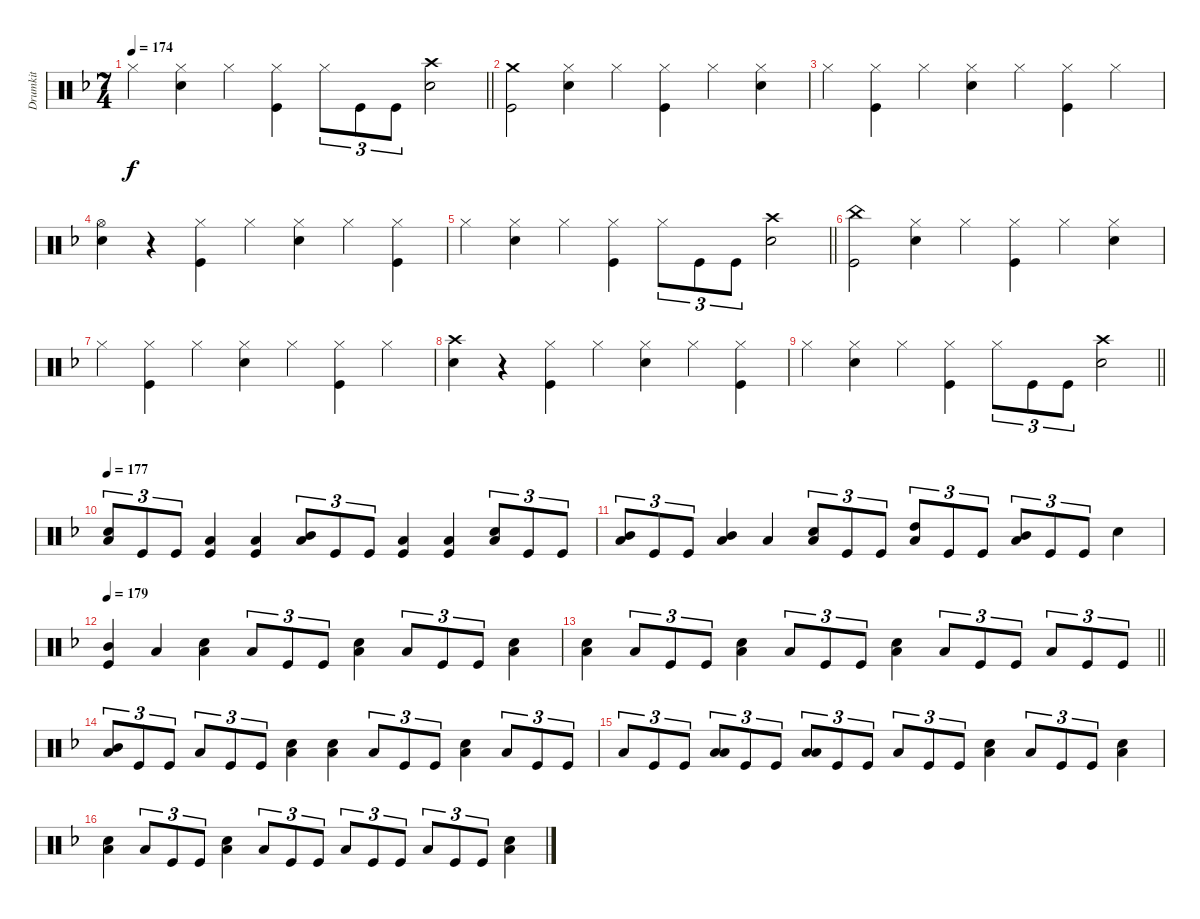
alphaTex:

\track ("Drumkit" "Drumkit") {instrument percussion}
\staff {score}
\articulation defaults
\ts (7 4)
\tempo 174
\clef neutral
\barLineRight lightlight
\ks dminor "Hi-Hat (closed)".4{dy f}
("Hi-Hat (closed)" "Snare (hit) 2").4 "Hi-Hat (closed)".4 ("Hi-Hat (closed)" "Kick (hit)").4 "Hi-Hat (closed)".8{tu (3 2)} "Kick (hit)".8{tu (3 2)} "Kick (hit)".8{tu (3 2)} ("Snare (hit) 2" "Crash high (hit)").2 |
("Kick (hit)" "Crash medium (hit)").2 ("Snare (hit) 2" "Hi-Hat (closed)").4 "Hi-Hat (closed)".4 ("Hi-Hat (closed)" "Kick (hit)").4 "Hi-Hat (closed)".4 ("Hi-Hat (closed)" "Snare (hit) 2").4 |
"Hi-Hat (closed)".4 ("Hi-Hat (closed)" "Kick (hit)").4 "Hi-Hat (closed)".4 ("Hi-Hat (closed)" "Snare (hit) 2").4 "Hi-Hat (closed)".4 ("Hi-Hat (closed)" "Kick (hit)").4 "Hi-Hat (closed)".4 |
("Hi-Hat (open)" "Snare (hit) 2").4 r.4 ("Hi-Hat (closed)" "Kick (hit)").4 "Hi-Hat (closed)".4 ("Hi-Hat (closed)" "Snare (hit) 2").4 "Hi-Hat (closed)".4 ("Hi-Hat (closed)" "Kick (hit)").4 |
\barLineRight lightlight "Hi-Hat (closed)".4
("Hi-Hat (closed)" "Snare (hit) 2").4 "Hi-Hat (closed)".4 ("Hi-Hat (closed)" "Kick (hit)").4 "Hi-Hat (closed)".8{tu (3 2)} "Kick (hit)".8{tu (3 2)} "Kick (hit)".8{tu (3 2)} ("Snare (hit) 2" "Crash high (hit)").2 |
("Kick (hit)" "China (hit)").2 ("Snare (hit) 2" "Hi-Hat (closed)").4 "Hi-Hat (closed)".4 ("Hi-Hat (closed)" "Kick (hit)").4 "Hi-Hat (closed)".4 ("Hi-Hat (closed)" "Snare (hit) 2").4 |
"Hi-Hat (closed)".4 ("Hi-Hat (closed)" "Kick (hit)").4 "Hi-Hat (closed)".4 ("Hi-Hat (closed)" "Snare (hit) 2").4 "Hi-Hat (closed)".4 ("Hi-Hat (closed)" "Kick (hit)").4 "Hi-Hat (closed)".4 |
("Snare (hit) 2" "Crash high (hit)").4 r.4 ("Hi-Hat (closed)" "Kick (hit)").4 "Hi-Hat (closed)".4 ("Hi-Hat (closed)" "Snare (hit) 2").4 "Hi-Hat (closed)".4 ("Hi-Hat (closed)" "Kick (hit)").4 |
\barLineRight lightlight "Hi-Hat (closed)".4
("Hi-Hat (closed)" "Snare (hit) 2").4 "Hi-Hat (closed)".4 ("Hi-Hat (closed)" "Kick (hit)").4 "Hi-Hat (closed)".8{tu (3 2)} "Kick (hit)".8{tu (3 2)} "Kick (hit)".8{tu (3 2)} ("Snare (hit) 2" "Crash high (hit)").2 |
\tempo 177
("Snare (hit) 2" "Low Floor Tom (hit)").8{tu (3 2)} "Kick (hit)".8{tu (3 2)} "Kick (hit)".8{tu (3 2)} ("Kick (hit)" "Low Floor Tom (hit)").4 ("Kick (hit)" "Low Floor Tom (hit)").4 ("Mid Tom (hit)" "Low Floor Tom (hit)").8{tu (3 2)} "Kick (hit)".8{tu (3 2)} "Kick (hit)".8{tu (3 2)} ("Kick (hit)" "Low Floor Tom (hit)").4 ("Kick (hit)" "Low Floor Tom (hit)").4 ("Low Floor Tom (hit)" "Snare (hit) 2").8{tu (3 2)} "Kick (hit)".8{tu (3 2)} "Kick (hit)".8{tu (3 2)} |
("Mid Tom (hit)" "Low Floor Tom (hit)").8{tu (3 2)} "Kick (hit)".8{tu (3 2)} "Kick (hit)".8{tu (3 2)} ("Mid Tom (hit)" "Low Floor Tom (hit)").4 "Low Floor Tom (hit)".4 ("Low Floor Tom (hit)" "Snare (hit) 2").8{tu (3 2)} "Kick (hit)".8{tu (3 2)} "Kick (hit)".8{tu (3 2)} ("Low Floor Tom (hit)" "High Tom (hit)").8{tu (3 2)} "Kick (hit)".8{tu (3 2)} "Kick (hit)".8{tu (3 2)} ("Low Floor Tom (hit)" "Mid Tom (hit)").8{tu (3 2)} "Kick (hit)".8{tu (3 2)} "Kick (hit)".8{tu (3 2)} "Snare (hit) 2".4 |
\tempo 179
("Kick (hit)" "Mid Tom (hit)").4 "Low Floor Tom (hit)".4 ("Snare (hit) 2" "Low Floor Tom (hit)").4 "Low Floor Tom (hit)".8{tu (3 2)} "Kick (hit)".8{tu (3 2)} "Kick (hit)".8{tu (3 2)} ("Snare (hit) 2" "Low Floor Tom (hit)").4 "Low Floor Tom (hit)".8{tu (3 2)} "Kick (hit)".8{tu (3 2)} "Kick (hit)".8{tu (3 2)} ("Snare (hit) 2" "Low Floor Tom (hit)").4 |
\barLineRight lightlight
("Snare (hit) 2" "Low Floor Tom (hit)").4 "Low Floor Tom (hit)".8{tu (3 2)} "Kick (hit)".8{tu (3 2)} "Kick (hit)".8{tu (3 2)} ("Snare (hit) 2" "Low Floor Tom (hit)").4 "Low Floor Tom (hit)".8{tu (3 2)} "Kick (hit)".8{tu (3 2)} "Kick (hit)".8{tu (3 2)} ("Snare (hit) 2" "Low Floor Tom (hit)").4 "Low Floor Tom (hit)".8{tu (3 2)} "Kick (hit)".8{tu (3 2)} "Kick (hit)".8{tu (3 2)} "Low Floor Tom (hit)".8{tu (3 2)} "Kick (hit)".8{tu (3 2)} "Kick (hit)".8{tu (3 2)} |
("Low Floor Tom (hit)" "Mid Tom (hit)").8{tu (3 2)} "Kick (hit)".8{tu (3 2)} "Kick (hit)".8{tu (3 2)} "Low Floor Tom (hit)".8{tu (3 2)} "Kick (hit)".8{tu (3 2)} "Kick (hit)".8{tu (3 2)} ("Snare (hit) 2" "Low Floor Tom (hit)").4 ("Snare (hit) 2" "Low Floor Tom (hit)").4 "Low Floor Tom (hit)".8{tu (3 2)} "Kick (hit)".8{tu (3 2)} "Kick (hit)".8{tu (3 2)} ("Snare (hit) 2" "Low Floor Tom (hit)").4 "Low Floor Tom (hit)".8{tu (3 2)} "Kick (hit)".8{tu (3 2)} "Kick (hit)".8{tu (3 2)} |
"Low Floor Tom (hit)".8{tu (3 2)} "Kick (hit)".8{tu (3 2)} "Kick (hit)".8{tu (3 2)} ("Low Floor Tom (hit)" "Low Tom (hit)").8{tu (3 2)} "Kick (hit)".8{tu (3 2)} "Kick (hit)".8{tu (3 2)} ("Low Floor Tom (hit)" "Low Tom (hit)").8{tu (3 2)} "Kick (hit)".8{tu (3 2)} "Kick (hit)".8{tu (3 2)} "Low Floor Tom (hit)".8{tu (3 2)} "Kick (hit)".8{tu (3 2)} "Kick (hit)".8{tu (3 2)} ("Snare (hit) 2" "Low Floor Tom (hit)").4 "Low Floor Tom (hit)".8{tu (3 2)} "Kick (hit)".8{tu (3 2)} "Kick (hit)".8{tu (3 2)} ("Snare (hit) 2" "Low Floor Tom (hit)").4 |
("Snare (hit) 2" "Low Floor Tom (hit)").4 "Low Floor Tom (hit)".8{tu (3 2)} "Kick (hit)".8{tu (3 2)} "Kick (hit)".8{tu (3 2)} ("Snare (hit) 2" "Low Floor Tom (hit)").4 "Low Floor Tom (hit)".8{tu (3 2)} "Kick (hit)".8{tu (3 2)} "Kick (hit)".8{tu (3 2)} "Low Floor Tom (hit)".8{tu (3 2)} "Kick (hit)".8{tu (3 2)} "Kick (hit)".8{tu (3 2)} "Low Floor Tom (hit)".8{tu (3 2)} "Kick (hit)".8{tu (3 2)} "Kick (hit)".8{tu (3 2)} ("Snare (hit) 2" "Low Floor Tom (hit)").4
